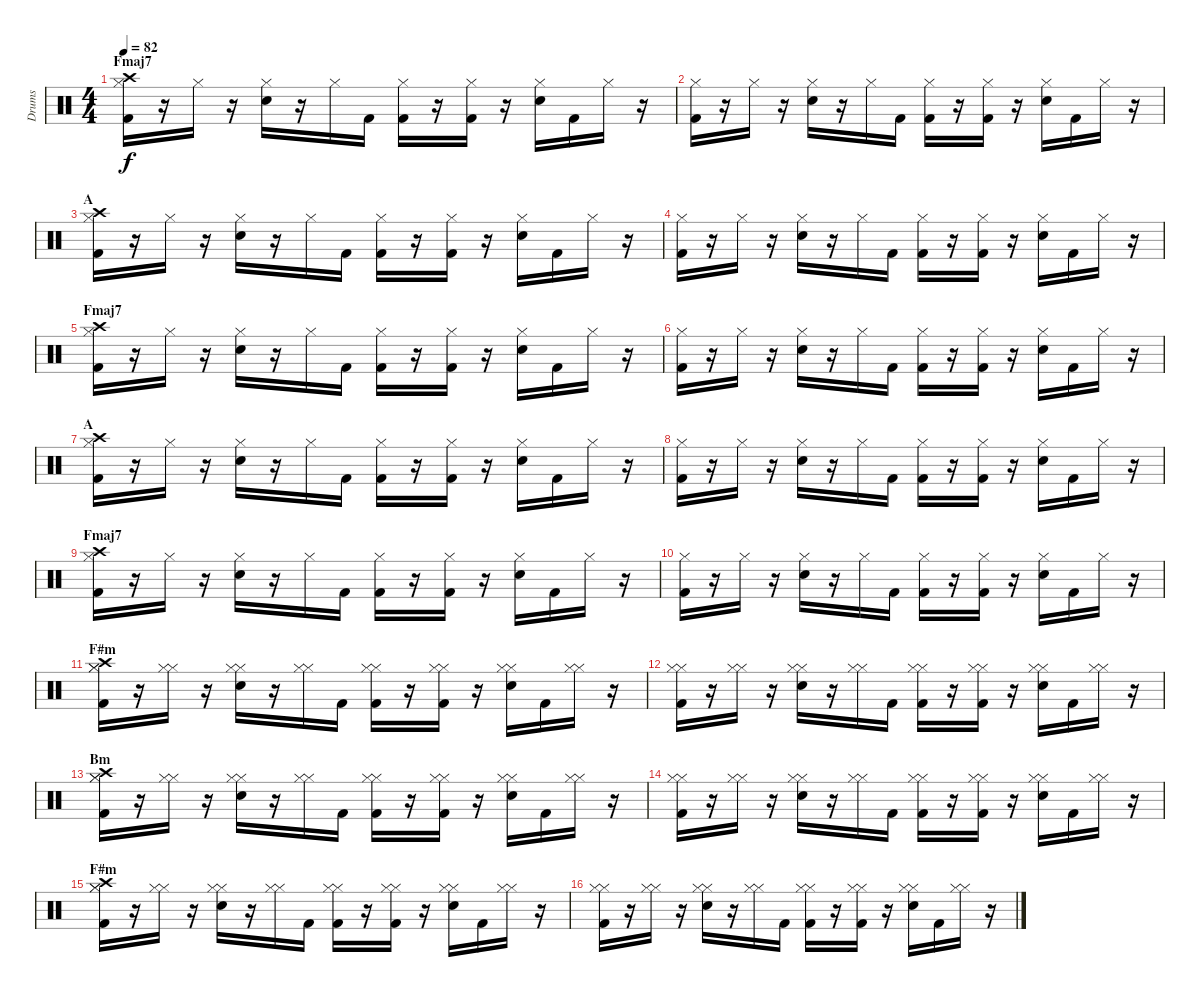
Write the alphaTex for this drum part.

\track ("Drums" "Drums") {instrument percussion}
\staff {score}
\articulation defaults
\ts (4 4)
\section ("" "Fmaj7")
\tempo 82
\clef neutral
\ks c
("Crash high (hit)" "Hi-Hat (closed)" "Kick (hit) 2").16{dy f} r.16 "Hi-Hat (closed)".16 r.16 ("Hi-Hat (closed)" "Snare (hit) 2").16 r.16 "Hi-Hat (closed)".16 "Kick (hit) 2".16 ("Hi-Hat (closed)" "Kick (hit) 2").16 r.16 ("Hi-Hat (closed)" "Kick (hit) 2").16 r.16 ("Hi-Hat (closed)" "Snare (hit) 2").16 "Kick (hit) 2".16 "Hi-Hat (closed)".16 r.16 |
("Hi-Hat (closed)" "Kick (hit) 2").16 r.16 "Hi-Hat (closed)".16 r.16 ("Hi-Hat (closed)" "Snare (hit) 2").16 r.16 "Hi-Hat (closed)".16 "Kick (hit) 2".16 ("Hi-Hat (closed)" "Kick (hit) 2").16 r.16 ("Hi-Hat (closed)" "Kick (hit) 2").16 r.16 ("Hi-Hat (closed)" "Snare (hit) 2").16 "Kick (hit) 2".16 "Hi-Hat (closed)".16 r.16 |
\section ("" "A")
("Crash high (hit)" "Hi-Hat (closed)" "Kick (hit) 2").16 r.16 "Hi-Hat (closed)".16 r.16 ("Hi-Hat (closed)" "Snare (hit) 2").16 r.16 "Hi-Hat (closed)".16 "Kick (hit) 2".16 ("Hi-Hat (closed)" "Kick (hit) 2").16 r.16 ("Hi-Hat (closed)" "Kick (hit) 2").16 r.16 ("Hi-Hat (closed)" "Snare (hit) 2").16 "Kick (hit) 2".16 "Hi-Hat (closed)".16 r.16 |
("Hi-Hat (closed)" "Kick (hit) 2").16 r.16 "Hi-Hat (closed)".16 r.16 ("Hi-Hat (closed)" "Snare (hit) 2").16 r.16 "Hi-Hat (closed)".16 "Kick (hit) 2".16 ("Hi-Hat (closed)" "Kick (hit) 2").16 r.16 ("Hi-Hat (closed)" "Kick (hit) 2").16 r.16 ("Hi-Hat (closed)" "Snare (hit) 2").16 "Kick (hit) 2".16 "Hi-Hat (closed)".16 r.16 |
\section ("" "Fmaj7")
("Crash high (hit)" "Hi-Hat (closed)" "Kick (hit) 2").16 r.16 "Hi-Hat (closed)".16 r.16 ("Hi-Hat (closed)" "Snare (hit) 2").16 r.16 "Hi-Hat (closed)".16 "Kick (hit) 2".16 ("Hi-Hat (closed)" "Kick (hit) 2").16 r.16 ("Hi-Hat (closed)" "Kick (hit) 2").16 r.16 ("Hi-Hat (closed)" "Snare (hit) 2").16 "Kick (hit) 2".16 "Hi-Hat (closed)".16 r.16 |
("Hi-Hat (closed)" "Kick (hit) 2").16 r.16 "Hi-Hat (closed)".16 r.16 ("Hi-Hat (closed)" "Snare (hit) 2").16 r.16 "Hi-Hat (closed)".16 "Kick (hit) 2".16 ("Hi-Hat (closed)" "Kick (hit) 2").16 r.16 ("Hi-Hat (closed)" "Kick (hit) 2").16 r.16 ("Hi-Hat (closed)" "Snare (hit) 2").16 "Kick (hit) 2".16 "Hi-Hat (closed)".16 r.16 |
\section ("" "A")
("Crash high (hit)" "Hi-Hat (closed)" "Kick (hit) 2").16 r.16 "Hi-Hat (closed)".16 r.16 ("Hi-Hat (closed)" "Snare (hit) 2").16 r.16 "Hi-Hat (closed)".16 "Kick (hit) 2".16 ("Hi-Hat (closed)" "Kick (hit) 2").16 r.16 ("Hi-Hat (closed)" "Kick (hit) 2").16 r.16 ("Hi-Hat (closed)" "Snare (hit) 2").16 "Kick (hit) 2".16 "Hi-Hat (closed)".16 r.16 |
("Hi-Hat (closed)" "Kick (hit) 2").16 r.16 "Hi-Hat (closed)".16 r.16 ("Hi-Hat (closed)" "Snare (hit) 2").16 r.16 "Hi-Hat (closed)".16 "Kick (hit) 2".16 ("Hi-Hat (closed)" "Kick (hit) 2").16 r.16 ("Hi-Hat (closed)" "Kick (hit) 2").16 r.16 ("Hi-Hat (closed)" "Snare (hit) 2").16 "Kick (hit) 2".16 "Hi-Hat (closed)".16 r.16 |
\section ("" "Fmaj7")
("Crash high (hit)" "Hi-Hat (closed)" "Kick (hit) 2").16 r.16 "Hi-Hat (closed)".16 r.16 ("Hi-Hat (closed)" "Snare (hit) 2").16 r.16 "Hi-Hat (closed)".16 "Kick (hit) 2".16 ("Hi-Hat (closed)" "Kick (hit) 2").16 r.16 ("Hi-Hat (closed)" "Kick (hit) 2").16 r.16 ("Hi-Hat (closed)" "Snare (hit) 2").16 "Kick (hit) 2".16 "Hi-Hat (closed)".16 r.16 |
("Hi-Hat (closed)" "Kick (hit) 2").16 r.16 "Hi-Hat (closed)".16 r.16 ("Hi-Hat (closed)" "Snare (hit) 2").16 r.16 "Hi-Hat (closed)".16 "Kick (hit) 2".16 ("Hi-Hat (closed)" "Kick (hit) 2").16 r.16 ("Hi-Hat (closed)" "Kick (hit) 2").16 r.16 ("Hi-Hat (closed)" "Snare (hit) 2").16 "Kick (hit) 2".16 "Hi-Hat (closed)".16 r.16 |
\section ("" "F#m")
("Crash high (hit)" "Hi-Hat (closed)" "Hi-Hat (closed)" "Kick (hit) 2").16 r.16 ("Hi-Hat (closed)" "Hi-Hat (closed)").16 r.16 ("Hi-Hat (closed)" "Hi-Hat (closed)" "Snare (hit) 2").16 r.16 ("Hi-Hat (closed)" "Hi-Hat (closed)").16 "Kick (hit) 2".16 ("Hi-Hat (closed)" "Hi-Hat (closed)" "Kick (hit) 2").16 r.16 ("Hi-Hat (closed)" "Hi-Hat (closed)" "Kick (hit) 2").16 r.16 ("Hi-Hat (closed)" "Hi-Hat (closed)" "Snare (hit) 2").16 "Kick (hit) 2".16 ("Hi-Hat (closed)" "Hi-Hat (closed)").16 r.16 |
("Hi-Hat (closed)" "Hi-Hat (closed)" "Kick (hit) 2").16 r.16 ("Hi-Hat (closed)" "Hi-Hat (closed)").16 r.16 ("Hi-Hat (closed)" "Hi-Hat (closed)" "Snare (hit) 2").16 r.16 ("Hi-Hat (closed)" "Hi-Hat (closed)").16 "Kick (hit) 2".16 ("Hi-Hat (closed)" "Hi-Hat (closed)" "Kick (hit) 2").16 r.16 ("Hi-Hat (closed)" "Hi-Hat (closed)" "Kick (hit) 2").16 r.16 ("Hi-Hat (closed)" "Hi-Hat (closed)" "Snare (hit) 2").16 "Kick (hit) 2".16 ("Hi-Hat (closed)" "Hi-Hat (closed)").16 r.16 |
\section ("" "Bm")
("Crash high (hit)" "Hi-Hat (closed)" "Hi-Hat (closed)" "Kick (hit) 2").16 r.16 ("Hi-Hat (closed)" "Hi-Hat (closed)").16 r.16 ("Hi-Hat (closed)" "Hi-Hat (closed)" "Snare (hit) 2").16 r.16 ("Hi-Hat (closed)" "Hi-Hat (closed)").16 "Kick (hit) 2".16 ("Hi-Hat (closed)" "Hi-Hat (closed)" "Kick (hit) 2").16 r.16 ("Hi-Hat (closed)" "Hi-Hat (closed)" "Kick (hit) 2").16 r.16 ("Hi-Hat (closed)" "Hi-Hat (closed)" "Snare (hit) 2").16 "Kick (hit) 2".16 ("Hi-Hat (closed)" "Hi-Hat (closed)").16 r.16 |
("Hi-Hat (closed)" "Hi-Hat (closed)" "Kick (hit) 2").16 r.16 ("Hi-Hat (closed)" "Hi-Hat (closed)").16 r.16 ("Hi-Hat (closed)" "Hi-Hat (closed)" "Snare (hit) 2").16 r.16 ("Hi-Hat (closed)" "Hi-Hat (closed)").16 "Kick (hit) 2".16 ("Hi-Hat (closed)" "Hi-Hat (closed)" "Kick (hit) 2").16 r.16 ("Hi-Hat (closed)" "Hi-Hat (closed)" "Kick (hit) 2").16 r.16 ("Hi-Hat (closed)" "Hi-Hat (closed)" "Snare (hit) 2").16 "Kick (hit) 2".16 ("Hi-Hat (closed)" "Hi-Hat (closed)").16 r.16 |
\section ("" "F#m")
("Crash high (hit)" "Hi-Hat (closed)" "Hi-Hat (closed)" "Kick (hit) 2").16 r.16 ("Hi-Hat (closed)" "Hi-Hat (closed)").16 r.16 ("Hi-Hat (closed)" "Hi-Hat (closed)" "Snare (hit) 2").16 r.16 ("Hi-Hat (closed)" "Hi-Hat (closed)").16 "Kick (hit) 2".16 ("Hi-Hat (closed)" "Hi-Hat (closed)" "Kick (hit) 2").16 r.16 ("Hi-Hat (closed)" "Hi-Hat (closed)" "Kick (hit) 2").16 r.16 ("Hi-Hat (closed)" "Hi-Hat (closed)" "Snare (hit) 2").16 "Kick (hit) 2".16 ("Hi-Hat (closed)" "Hi-Hat (closed)").16 r.16 |
("Hi-Hat (closed)" "Hi-Hat (closed)" "Kick (hit) 2").16 r.16 ("Hi-Hat (closed)" "Hi-Hat (closed)").16 r.16 ("Hi-Hat (closed)" "Hi-Hat (closed)" "Snare (hit) 2").16 r.16 ("Hi-Hat (closed)" "Hi-Hat (closed)").16 "Kick (hit) 2".16 ("Hi-Hat (closed)" "Hi-Hat (closed)" "Kick (hit) 2").16 r.16 ("Hi-Hat (closed)" "Hi-Hat (closed)" "Kick (hit) 2").16 r.16 ("Hi-Hat (closed)" "Hi-Hat (closed)" "Snare (hit) 2").16 "Kick (hit) 2".16 ("Hi-Hat (closed)" "Hi-Hat (closed)").16 r.16
